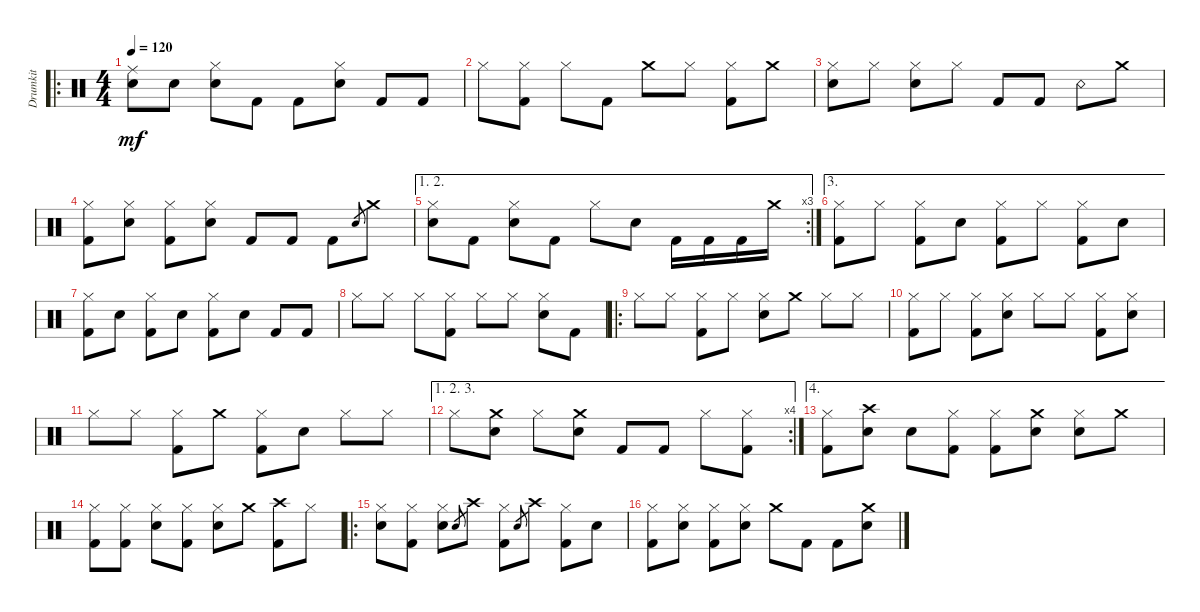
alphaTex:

\track ("Drumkit" "Drumkit") {instrument percussion}
\staff {score}
\articulation defaults
\ro
\ts (4 4)
\tempo 120
\clef neutral
\ks c
("Ride (middle)" "Snare (hit) 2").8{dy mf} "Snare (hit) 2".8 ("Hi-Hat (closed)" "Snare (hit) 2").8 "Kick (hit) 2".8 "Kick (hit) 2".8 ("Hi-Hat (closed)" "Snare (hit) 2").8 "Kick (hit) 2".8 "Kick (hit) 2".8 |
"Hi-Hat (closed)".8 ("Hi-Hat (closed)" "Kick (hit) 2").8 "Hi-Hat (closed)".8 "Kick (hit) 2".8 "Crash medium (hit)".8 "Hi-Hat (closed)".8 ("Hi-Hat (closed)" "Kick (hit) 2").8 "Crash medium (hit)".8 |
("Snare (hit) 2" "Hi-Hat (closed)").8 "Hi-Hat (closed)".8 ("Hi-Hat (closed)" "Snare (hit) 2").8 "Hi-Hat (closed)".8 "Kick (hit) 2".8 "Kick (hit) 2".8 "Snare (rim shot)".8 "Crash medium (hit)".8 |
("Hi-Hat (closed)" "Kick (hit) 2").8 ("Hi-Hat (closed)" "Snare (hit) 2").8 ("Hi-Hat (closed)" "Kick (hit) 2").8 ("Hi-Hat (closed)" "Snare (hit) 2").8 "Kick (hit) 2".8 "Kick (hit) 2".8 "Kick (hit) 2".8 "Snare (hit)".8{gr} "Crash medium (hit)".8 |
\ae (1 2)
\rc 3
("Hi-Hat (closed)" "Snare (hit) 2").8 "Kick (hit) 2".8 ("Hi-Hat (closed)" "Snare (hit) 2").8 "Kick (hit) 2".8 "Hi-Hat (closed)".8 "Snare (hit) 2".8 "Kick (hit) 2".16 "Kick (hit) 2".16 "Kick (hit) 2".16 "Crash medium (hit)".16 |
\ae 3
("Hi-Hat (closed)" "Kick (hit) 2").8 "Hi-Hat (closed)".8 ("Hi-Hat (closed)" "Kick (hit) 2").8 "Snare (hit) 2".8 ("Hi-Hat (closed)" "Kick (hit) 2").8 "Hi-Hat (closed)".8 ("Hi-Hat (closed)" "Kick (hit) 2").8 "Snare (hit) 2".8 |
("Hi-Hat (closed)" "Kick (hit) 2").8 "Snare (hit) 2".8 ("Hi-Hat (closed)" "Kick (hit) 2").8 "Snare (hit) 2".8 ("Hi-Hat (closed)" "Kick (hit) 2").8 "Snare (hit) 2".8 "Kick (hit) 2".8 "Kick (hit) 2".8 |
"Hi-Hat (closed)".8 "Hi-Hat (closed)".8 "Hi-Hat (closed)".8 ("Hi-Hat (closed)" "Kick (hit) 2").8 "Hi-Hat (closed)".8 "Hi-Hat (closed)".8 ("Snare (hit) 2" "Hi-Hat (closed)").8 "Kick (hit) 2".8 |
\ro "Hi-Hat (closed)".8 "Hi-Hat (closed)".8
("Hi-Hat (closed)" "Kick (hit) 2").8 "Hi-Hat (closed)".8 ("Snare (hit) 2" "Hi-Hat (closed)").8 "Crash medium (hit)".8 "Hi-Hat (closed)".8 "Hi-Hat (closed)".8 |
("Kick (hit) 2" "Hi-Hat (closed)").8 "Hi-Hat (closed)".8 ("Hi-Hat (closed)" "Kick (hit) 2").8 ("Hi-Hat (closed)" "Snare (hit) 2").8 "Hi-Hat (closed)".8 "Hi-Hat (closed)".8 ("Kick (hit) 2" "Hi-Hat (closed)").8 ("Hi-Hat (closed)" "Snare (hit) 2").8 |
"Hi-Hat (closed)".8 "Hi-Hat (closed)".8 ("Kick (hit) 2" "Hi-Hat (closed)").8 "Crash medium (hit)".8 ("Hi-Hat (closed)" "Kick (hit) 2").8 "Snare (hit) 2".8 "Hi-Hat (closed)".8 "Hi-Hat (closed)".8 |
\ae (1 2 3)
\rc 4 "Hi-Hat (closed)".8
("Crash medium (hit)" "Snare (hit) 2").8 "Hi-Hat (closed)".8 ("Crash medium (hit)" "Snare (hit) 2").8 "Kick (hit) 2".8 "Kick (hit) 2".8 "Hi-Hat (closed)".8 ("Hi-Hat (closed)" "Kick (hit) 2").8 |
\ae 4
("Kick (hit) 2" "Hi-Hat (closed)").8 ("Snare (hit) 2" "Crash high (hit)").8 "Snare (hit) 2".8 ("Kick (hit) 2" "Hi-Hat (closed)").8 ("Kick (hit) 2" "Hi-Hat (closed)").8 ("Snare (hit) 2" "Crash medium (hit)").8 ("Snare (hit) 2" "Hi-Hat (closed)").8 "Crash medium (hit)".8 |
("Kick (hit) 2" "Hi-Hat (closed)").8 ("Kick (hit) 2" "Hi-Hat (closed)").8 ("Hi-Hat (closed)" "Snare (hit) 2").8 ("Hi-Hat (closed)" "Kick (hit) 2").8 ("Hi-Hat (closed)" "Snare (hit) 2").8 "Crash medium (hit)".8 ("Kick (hit) 2" "Crash high (hit)").8 "Hi-Hat (closed)".8 |
\ro
("Hi-Hat (closed)" "Snare (hit) 2").8 ("Hi-Hat (closed)" "Kick (hit) 2").8 ("Hi-Hat (closed)" "Snare (hit) 2").8 "Snare (hit)".8{gr} "Crash high (hit)".8 ("Hi-Hat (closed)" "Kick (hit) 2").8 "Snare (hit)".8{gr} "Crash high (hit)".8 ("Kick (hit) 2" "Hi-Hat (closed)").8 "Snare (hit) 2".8 |
("Hi-Hat (closed)" "Kick (hit) 2").8 ("Hi-Hat (closed)" "Snare (hit) 2").8 ("Hi-Hat (closed)" "Kick (hit) 2").8 ("Hi-Hat (closed)" "Snare (hit) 2").8 "Crash medium (hit)".8 "Kick (hit) 2".8 "Kick (hit) 2".8 ("Snare (hit) 2" "Crash medium (hit)").8
